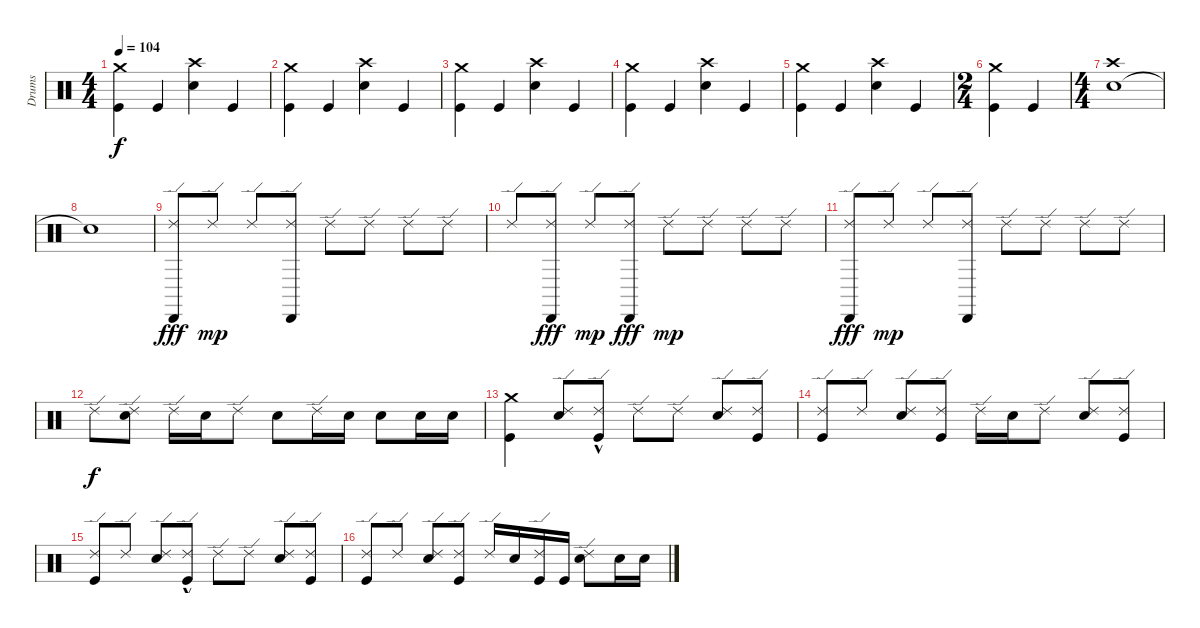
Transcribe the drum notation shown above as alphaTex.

\track ("Drums" "Drums") {instrument percussion}
\staff {score}
\articulation defaults
\ts (4 4)
\tempo 104
\clef neutral
\ks c
("Kick (hit)" "Crash medium (hit)").4{dy f} "Kick (hit)".4 ("Electric Snare (hit)" "Crash high (hit)").4 "Kick (hit)".4 |
("Kick (hit)" "Crash medium (hit)").4 "Kick (hit)".4 ("Electric Snare (hit)" "Crash high (hit)").4 "Kick (hit)".4 |
("Kick (hit)" "Crash medium (hit)").4 "Kick (hit)".4 ("Electric Snare (hit)" "Crash high (hit)").4 "Kick (hit)".4 |
("Kick (hit)" "Crash medium (hit)").4 "Kick (hit)".4 ("Electric Snare (hit)" "Crash high (hit)").4 "Kick (hit)".4 |
("Kick (hit)" "Crash medium (hit)").4 "Kick (hit)".4 ("Electric Snare (hit)" "Crash high (hit)").4 "Kick (hit)".4 |
\ts (2 4)
("Kick (hit)" "Crash medium (hit)").4 "Kick (hit)".4 |
\ts (4 4)
("Electric Snare (hit)" "Crash high (hit)").1 |
"Snare (hit)"{t}.1 |
("Ride (edge) 2" "Cabasa (hit)").8{dy fff} "Ride (edge) 2".8{dy mp} "Ride (edge) 2".8 ("Cabasa (hit)" "Ride (edge) 2").8 "Ride (edge) 2".8 "Ride (edge) 2".8 "Ride (edge) 2".8 "Ride (edge) 2".8 |
"Ride (edge) 2".8 ("Ride (edge) 2" "Cabasa (hit)").8{dy fff} "Ride (edge) 2".8{dy mp} ("Ride (edge) 2" "Cabasa (hit)").8{dy fff} "Ride (edge) 2".8{dy mp} "Ride (edge) 2".8 "Ride (edge) 2".8 "Ride (edge) 2".8 |
("Ride (edge) 2" "Cabasa (hit)").8{dy fff} "Ride (edge) 2".8{dy mp} "Ride (edge) 2".8 ("Cabasa (hit)" "Ride (edge) 2").8 "Ride (edge) 2".8 "Ride (edge) 2".8 "Ride (edge) 2".8 "Ride (edge) 2".8 |
"Ride (edge) 2".8{dy f} ("Electric Snare (hit)" "Ride (edge) 2").8 "Ride (edge) 2".16 "Electric Snare (hit)".16 "Ride (edge) 2".8 "Electric Snare (hit)".8 "Ride (edge) 2".16 "Electric Snare (hit)".16 "Electric Snare (hit)".8 "Electric Snare (hit)".16 "Electric Snare (hit)".16 |
("Kick (hit)" "Crash medium (hit)").4 ("Electric Snare (hit)" "Ride (edge) 2").8 ("Kick (hit)"{hac} "Ride (edge) 2").8 "Ride (edge) 2".8 "Ride (edge) 2".8 ("Electric Snare (hit)" "Ride (edge) 2").8 ("Kick (hit)" "Ride (edge) 2").8 |
("Kick (hit)" "Ride (edge) 2").8 "Ride (edge) 2".8 ("Electric Snare (hit)" "Ride (edge) 2").8 ("Kick (hit)" "Ride (edge) 2").8 "Ride (edge) 2".16 "Electric Snare (hit)".16 "Ride (edge) 2".8 ("Electric Snare (hit)" "Ride (edge) 2").8 ("Kick (hit)" "Ride (edge) 2").8 |
("Kick (hit)" "Ride (edge) 2").8 "Ride (edge) 2".8 ("Electric Snare (hit)" "Ride (edge) 2").8 ("Kick (hit)"{hac} "Ride (edge) 2").8 "Ride (edge) 2".8 "Ride (edge) 2".8 ("Electric Snare (hit)" "Ride (edge) 2").8 ("Kick (hit)" "Ride (edge) 2").8 |
("Kick (hit)" "Ride (edge) 2").8 "Ride (edge) 2".8 ("Electric Snare (hit)" "Ride (edge) 2").8 ("Kick (hit)" "Ride (edge) 2").8 "Ride (edge) 2".16 "Electric Snare (hit)".16 ("Kick (hit)" "Ride (edge) 2").16 "Kick (hit)".16 ("Electric Snare (hit)" "Ride (edge) 2").8 "Electric Snare (hit)".16 "Electric Snare (hit)".16
